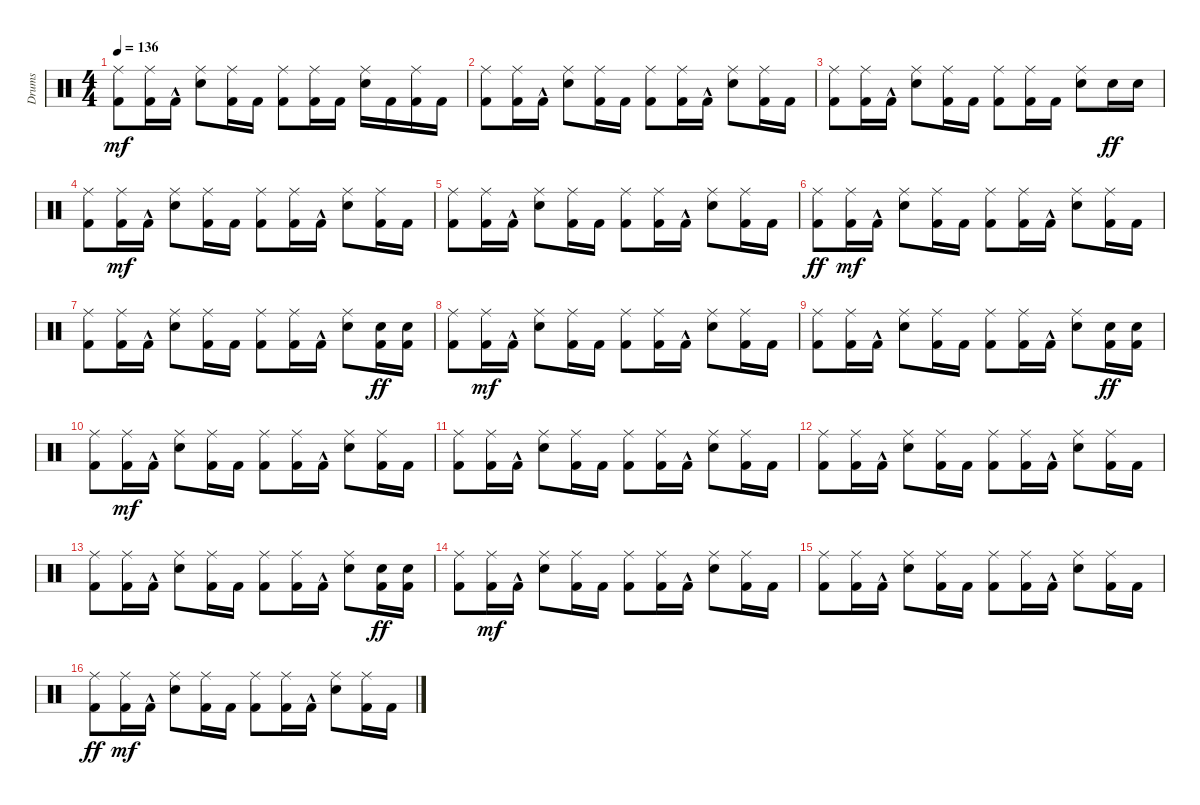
\track ("Drums" "Drums") {instrument percussion}
\staff {score}
\articulation defaults
\ts (4 4)
\tempo 136
\clef neutral
\ks c
("Kick (hit) 2" "Ride (middle)").8{dy mf} ("Kick (hit) 2" "Ride (middle)").16 "Kick (hit) 2"{hac}.16 ("Snare (hit) 2" "Ride (middle)").8 ("Kick (hit) 2" "Ride (middle)").16 "Kick (hit) 2".16 ("Kick (hit) 2" "Ride (middle)").8 ("Kick (hit) 2" "Ride (middle)").16 "Kick (hit) 2".16 ("Snare (hit) 2" "Ride (middle)").16 "Kick (hit) 2".16 ("Kick (hit) 2" "Ride (middle)").16 "Kick (hit) 2".16 |
("Kick (hit) 2" "Ride (middle)").8 ("Kick (hit) 2" "Ride (middle)").16 "Kick (hit) 2"{hac}.16 ("Snare (hit) 2" "Ride (middle)").8 ("Kick (hit) 2" "Ride (middle)").16 "Kick (hit) 2".16 ("Kick (hit) 2" "Ride (middle)").8 ("Kick (hit) 2" "Ride (middle)").16 "Kick (hit) 2"{hac}.16 ("Snare (hit) 2" "Ride (middle)").8 ("Kick (hit) 2" "Ride (middle)").16 "Kick (hit) 2".16 |
("Kick (hit) 2" "Ride (middle)").8 ("Kick (hit) 2" "Ride (middle)").16 "Kick (hit) 2"{hac}.16 ("Snare (hit) 2" "Ride (middle)").8 ("Kick (hit) 2" "Ride (middle)").16 "Kick (hit) 2".16 ("Kick (hit) 2" "Ride (middle)").8 ("Kick (hit) 2" "Ride (middle)").16 "Kick (hit) 2".16 ("Snare (hit) 2" "Ride (middle)").8 "Snare (hit) 2".16{dy ff} "Snare (hit) 2".16 |
("Kick (hit) 2" "Ride (middle)").8 ("Kick (hit) 2" "Ride (middle)").16{dy mf} "Kick (hit) 2"{hac}.16 ("Snare (hit) 2" "Ride (middle)").8 ("Kick (hit) 2" "Ride (middle)").16 "Kick (hit) 2".16 ("Kick (hit) 2" "Ride (middle)").8 ("Kick (hit) 2" "Ride (middle)").16 "Kick (hit) 2"{hac}.16 ("Snare (hit) 2" "Ride (middle)").8 ("Kick (hit) 2" "Ride (middle)").16 "Kick (hit) 2".16 |
("Kick (hit) 2" "Ride (middle)").8 ("Kick (hit) 2" "Ride (middle)").16 "Kick (hit) 2"{hac}.16 ("Snare (hit) 2" "Ride (middle)").8 ("Kick (hit) 2" "Ride (middle)").16 "Kick (hit) 2".16 ("Kick (hit) 2" "Ride (middle)").8 ("Kick (hit) 2" "Ride (middle)").16 "Kick (hit) 2"{hac}.16 ("Snare (hit) 2" "Ride (middle)").8 ("Kick (hit) 2" "Ride (middle)").16 "Kick (hit) 2".16 |
("Kick (hit) 2" "Ride (middle)").8{dy ff} ("Kick (hit) 2" "Ride (middle)").16{dy mf} "Kick (hit) 2"{hac}.16 ("Snare (hit) 2" "Ride (middle)").8 ("Kick (hit) 2" "Ride (middle)").16 "Kick (hit) 2".16 ("Kick (hit) 2" "Ride (middle)").8 ("Kick (hit) 2" "Ride (middle)").16 "Kick (hit) 2"{hac}.16 ("Snare (hit) 2" "Ride (middle)").8 ("Kick (hit) 2" "Ride (middle)").16 "Kick (hit) 2".16 |
("Kick (hit) 2" "Ride (middle)").8 ("Kick (hit) 2" "Ride (middle)").16 "Kick (hit) 2"{hac}.16 ("Snare (hit) 2" "Ride (middle)").8 ("Kick (hit) 2" "Ride (middle)").16 "Kick (hit) 2".16 ("Kick (hit) 2" "Ride (middle)").8 ("Kick (hit) 2" "Ride (middle)").16 "Kick (hit) 2"{hac}.16 ("Snare (hit) 2" "Ride (middle)").8 ("Kick (hit) 2" "Snare (hit) 2").16{dy ff} ("Kick (hit) 2" "Snare (hit) 2").16 |
("Kick (hit) 2" "Ride (middle)").8 ("Kick (hit) 2" "Ride (middle)").16{dy mf} "Kick (hit) 2"{hac}.16 ("Snare (hit) 2" "Ride (middle)").8 ("Kick (hit) 2" "Ride (middle)").16 "Kick (hit) 2".16 ("Kick (hit) 2" "Ride (middle)").8 ("Kick (hit) 2" "Ride (middle)").16 "Kick (hit) 2"{hac}.16 ("Snare (hit) 2" "Ride (middle)").8 ("Kick (hit) 2" "Ride (middle)").16 "Kick (hit) 2".16 |
("Kick (hit) 2" "Ride (middle)").8 ("Kick (hit) 2" "Ride (middle)").16 "Kick (hit) 2"{hac}.16 ("Snare (hit) 2" "Ride (middle)").8 ("Kick (hit) 2" "Ride (middle)").16 "Kick (hit) 2".16 ("Kick (hit) 2" "Ride (middle)").8 ("Kick (hit) 2" "Ride (middle)").16 "Kick (hit) 2"{hac}.16 ("Snare (hit) 2" "Ride (middle)").8 ("Kick (hit) 2" "Snare (hit) 2").16{dy ff} ("Kick (hit) 2" "Snare (hit) 2").16 |
("Kick (hit) 2" "Ride (middle)").8 ("Kick (hit) 2" "Ride (middle)").16{dy mf} "Kick (hit) 2"{hac}.16 ("Snare (hit) 2" "Ride (middle)").8 ("Kick (hit) 2" "Ride (middle)").16 "Kick (hit) 2".16 ("Kick (hit) 2" "Ride (middle)").8 ("Kick (hit) 2" "Ride (middle)").16 "Kick (hit) 2"{hac}.16 ("Snare (hit) 2" "Ride (middle)").8 ("Kick (hit) 2" "Ride (middle)").16 "Kick (hit) 2".16 |
("Kick (hit) 2" "Ride (middle)").8 ("Kick (hit) 2" "Ride (middle)").16 "Kick (hit) 2"{hac}.16 ("Snare (hit) 2" "Ride (middle)").8 ("Kick (hit) 2" "Ride (middle)").16 "Kick (hit) 2".16 ("Kick (hit) 2" "Ride (middle)").8 ("Kick (hit) 2" "Ride (middle)").16 "Kick (hit) 2"{hac}.16 ("Snare (hit) 2" "Ride (middle)").8 ("Kick (hit) 2" "Ride (middle)").16 "Kick (hit) 2".16 |
("Kick (hit) 2" "Ride (middle)").8 ("Kick (hit) 2" "Ride (middle)").16 "Kick (hit) 2"{hac}.16 ("Snare (hit) 2" "Ride (middle)").8 ("Kick (hit) 2" "Ride (middle)").16 "Kick (hit) 2".16 ("Kick (hit) 2" "Ride (middle)").8 ("Kick (hit) 2" "Ride (middle)").16 "Kick (hit) 2"{hac}.16 ("Snare (hit) 2" "Ride (middle)").8 ("Kick (hit) 2" "Ride (middle)").16 "Kick (hit) 2".16 |
("Kick (hit) 2" "Ride (middle)").8 ("Kick (hit) 2" "Ride (middle)").16 "Kick (hit) 2"{hac}.16 ("Snare (hit) 2" "Ride (middle)").8 ("Kick (hit) 2" "Ride (middle)").16 "Kick (hit) 2".16 ("Kick (hit) 2" "Ride (middle)").8 ("Kick (hit) 2" "Ride (middle)").16 "Kick (hit) 2"{hac}.16 ("Snare (hit) 2" "Ride (middle)").8 ("Kick (hit) 2" "Snare (hit) 2").16{dy ff} ("Kick (hit) 2" "Snare (hit) 2").16 |
("Kick (hit) 2" "Ride (middle)").8 ("Kick (hit) 2" "Ride (middle)").16{dy mf} "Kick (hit) 2"{hac}.16 ("Snare (hit) 2" "Ride (middle)").8 ("Kick (hit) 2" "Ride (middle)").16 "Kick (hit) 2".16 ("Kick (hit) 2" "Ride (middle)").8 ("Kick (hit) 2" "Ride (middle)").16 "Kick (hit) 2"{hac}.16 ("Snare (hit) 2" "Ride (middle)").8 ("Kick (hit) 2" "Ride (middle)").16 "Kick (hit) 2".16 |
("Kick (hit) 2" "Ride (middle)").8 ("Kick (hit) 2" "Ride (middle)").16 "Kick (hit) 2"{hac}.16 ("Snare (hit) 2" "Ride (middle)").8 ("Kick (hit) 2" "Ride (middle)").16 "Kick (hit) 2".16 ("Kick (hit) 2" "Ride (middle)").8 ("Kick (hit) 2" "Ride (middle)").16 "Kick (hit) 2"{hac}.16 ("Snare (hit) 2" "Ride (middle)").8 ("Kick (hit) 2" "Ride (middle)").16 "Kick (hit) 2".16 |
("Kick (hit) 2" "Ride (middle)").8{dy ff} ("Kick (hit) 2" "Ride (middle)").16{dy mf} "Kick (hit) 2"{hac}.16 ("Snare (hit) 2" "Ride (middle)").8 ("Kick (hit) 2" "Ride (middle)").16 "Kick (hit) 2".16 ("Kick (hit) 2" "Ride (middle)").8 ("Kick (hit) 2" "Ride (middle)").16 "Kick (hit) 2"{hac}.16 ("Snare (hit) 2" "Ride (middle)").8 ("Kick (hit) 2" "Ride (middle)").16 "Kick (hit) 2".16
